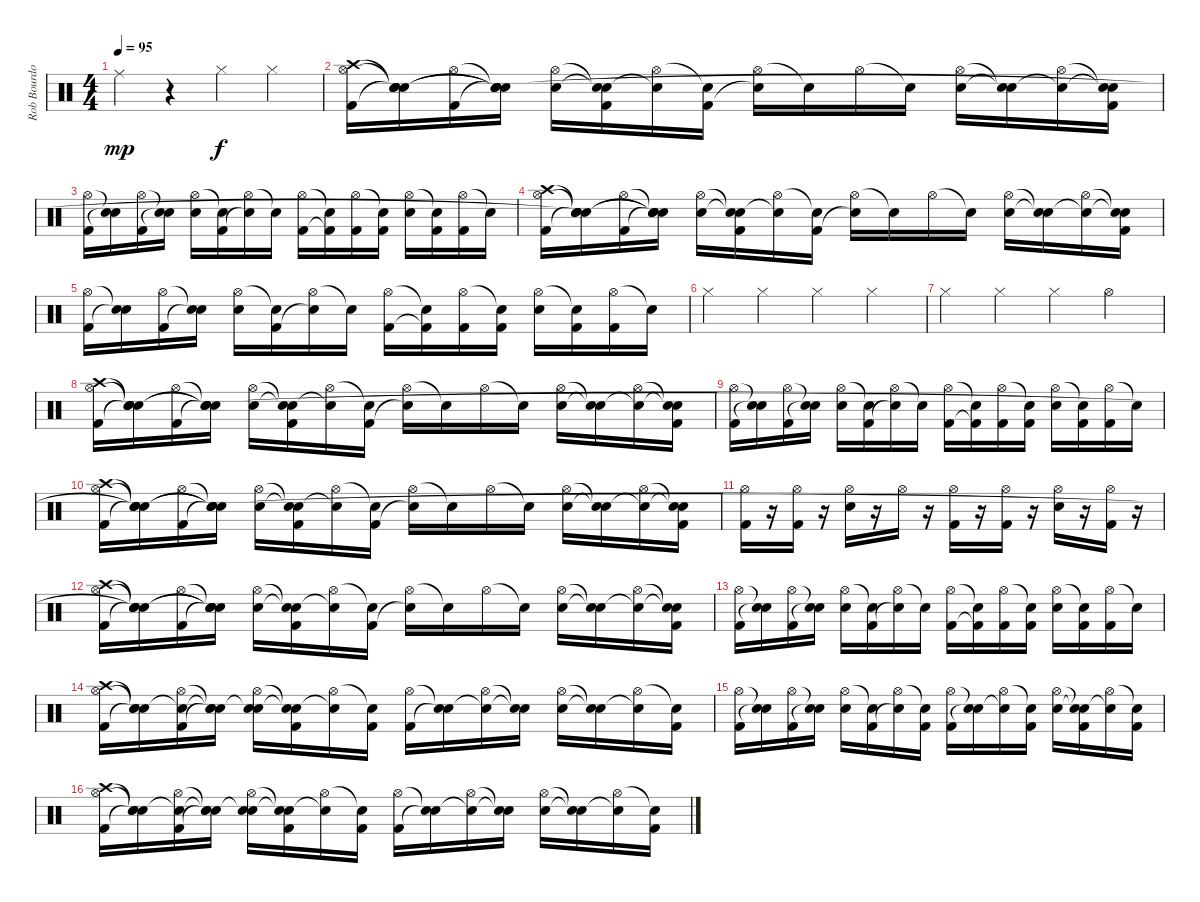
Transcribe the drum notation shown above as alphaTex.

\track ("Rob Bourdon" "Rob Bourdo") {instrument percussion}
\staff {score}
\articulation defaults
\ts (4 4)
\tempo 95
\clef neutral
\ks c "Ride (middle)".4{dy mp}
r.4 "Hi-Hat (closed)".4{dy f} "Hi-Hat (closed)".4 |
("Crash high (hit)" "Hi-Hat (open)" "Kick (hit) 2").16 ("Snare (hit)"{t} "Snare (hit)"{t} "Snare (hit)"{t} "Snare (hit)").16 ("Hi-Hat (open)" "Kick (hit) 2").16 ("Snare (hit)"{t} "Snare (hit)"{t} "Snare (hit)"{t} "Snare (hit)"{t}).16 ("Hi-Hat (open)" "Snare (hit) 2").16 ("Snare (hit)"{t} "Snare (hit)"{t} "Kick (hit) 2").16 ("Hi-Hat (open)" "Snare (hit)"{t}).16 ("Snare (hit)"{t} "Kick (hit) 2").16 ("Hi-Hat (open)" "Snare (hit)"{t}).16 "Snare (hit)"{t}.16 "Hi-Hat (open)".16 "Snare (hit)"{t}.16 ("Hi-Hat (open)" "Snare (hit) 2").16 ("Snare (hit)"{t} "Snare (hit)"{t}).16 ("Hi-Hat (open)" "Snare (hit)"{t}).16 ("Snare (hit)"{t} "Snare (hit)"{t} "Kick (hit) 2").16 |
("Hi-Hat (open)" "Kick (hit) 2").16 ("Snare (hit)"{t} "Snare (hit)"{t}).16 ("Hi-Hat (open)" "Kick (hit) 2").16 ("Snare (hit)"{t} "Snare (hit)"{t}).16 ("Hi-Hat (open)" "Snare (hit) 2").16 ("Snare (hit)"{t} "Kick (hit) 2").16 ("Hi-Hat (open)" "Snare (hit)"{t}).16 "Snare (hit)"{t}.16 ("Hi-Hat (open)" "Kick (hit) 2").16 ("Snare (hit)"{t} "Kick (hit) 2"{t}).16 ("Hi-Hat (open)" "Kick (hit) 2").16 ("Snare (hit)"{t} "Kick (hit) 2").16 ("Hi-Hat (open)" "Snare (hit) 2").16 ("Snare (hit)"{t} "Kick (hit) 2").16 ("Hi-Hat (open)" "Kick (hit) 2").16 "Snare (hit)"{t}.16 |
("Crash high (hit)" "Hi-Hat (open)" "Kick (hit) 2").16 ("Snare (hit)"{t} "Snare (hit)"{t} "Snare (hit)"{t} "Snare (hit)"{t}).16 ("Hi-Hat (open)" "Kick (hit) 2").16 ("Snare (hit)"{t} "Snare (hit)"{t} "Snare (hit)"{t} "Snare (hit)"{t}).16 ("Hi-Hat (open)" "Snare (hit) 2").16 ("Snare (hit)"{t} "Snare (hit)"{t} "Kick (hit) 2").16 ("Hi-Hat (open)" "Snare (hit)"{t}).16 ("Snare (hit)"{t} "Kick (hit) 2").16 ("Hi-Hat (open)" "Snare (hit)"{t}).16 "Snare (hit)"{t}.16 "Hi-Hat (open)".16 "Snare (hit)"{t}.16 ("Hi-Hat (open)" "Snare (hit) 2").16 ("Snare (hit)"{t} "Snare (hit)"{t}).16 ("Hi-Hat (open)" "Snare (hit)"{t}).16 ("Snare (hit)"{t} "Snare (hit)"{t} "Kick (hit) 2").16 |
("Hi-Hat (open)" "Kick (hit) 2").16 ("Snare (hit)"{t} "Snare (hit)"{t}).16 ("Hi-Hat (open)" "Kick (hit) 2").16 ("Snare (hit)"{t} "Snare (hit)"{t}).16 ("Hi-Hat (open)" "Snare (hit) 2").16 ("Snare (hit)"{t} "Kick (hit) 2").16 ("Hi-Hat (open)" "Snare (hit)"{t}).16 "Snare (hit)"{t}.16 ("Hi-Hat (open)" "Kick (hit) 2").16 ("Snare (hit)"{t} "Kick (hit) 2"{t}).16 ("Hi-Hat (open)" "Kick (hit) 2").16 ("Snare (hit)"{t} "Kick (hit) 2").16 ("Hi-Hat (open)" "Snare (hit) 2").16 ("Snare (hit)"{t} "Kick (hit) 2").16 ("Hi-Hat (open)" "Kick (hit) 2").16 "Snare (hit)"{t}.16 |
"Hi-Hat (closed)".4 "Hi-Hat (closed)".4 "Hi-Hat (closed)".4 "Hi-Hat (closed)".4 |
"Hi-Hat (closed)".4 "Hi-Hat (closed)".4 "Hi-Hat (closed)".4 "Hi-Hat (open)".4 |
("Crash high (hit)" "Hi-Hat (open)" "Kick (hit) 2").16 ("Snare (hit)"{t} "Snare (hit)"{t} "Snare (hit)"{t} "Snare (hit)").16 ("Hi-Hat (open)" "Kick (hit) 2").16 ("Snare (hit)"{t} "Snare (hit)"{t} "Snare (hit)"{t} "Snare (hit)"{t}).16 ("Hi-Hat (open)" "Snare (hit) 2").16 ("Snare (hit)"{t} "Snare (hit)"{t} "Kick (hit) 2").16 ("Hi-Hat (open)" "Snare (hit)"{t}).16 ("Snare (hit)"{t} "Kick (hit) 2").16 ("Hi-Hat (open)" "Snare (hit)"{t}).16 "Snare (hit)"{t}.16 "Hi-Hat (open)".16 "Snare (hit)"{t}.16 ("Hi-Hat (open)" "Snare (hit) 2").16 ("Snare (hit)"{t} "Snare (hit)"{t}).16 ("Hi-Hat (open)" "Snare (hit)"{t}).16 ("Snare (hit)"{t} "Snare (hit)"{t} "Kick (hit) 2").16 |
("Hi-Hat (open)" "Kick (hit) 2").16 ("Snare (hit)"{t} "Snare (hit)"{t}).16 ("Hi-Hat (open)" "Kick (hit) 2").16 ("Snare (hit)"{t} "Snare (hit)"{t}).16 ("Hi-Hat (open)" "Snare (hit) 2").16 ("Snare (hit)"{t} "Kick (hit) 2").16 ("Hi-Hat (open)" "Snare (hit)"{t}).16 "Snare (hit)"{t}.16 ("Hi-Hat (open)" "Kick (hit) 2").16 ("Snare (hit)"{t} "Kick (hit) 2"{t}).16 ("Hi-Hat (open)" "Kick (hit) 2").16 ("Snare (hit)"{t} "Kick (hit) 2").16 ("Hi-Hat (open)" "Snare (hit) 2").16 ("Snare (hit)"{t} "Kick (hit) 2").16 ("Hi-Hat (open)" "Kick (hit) 2").16 "Snare (hit)"{t}.16 |
("Crash high (hit)" "Hi-Hat (open)" "Kick (hit) 2").16 ("Snare (hit)"{t} "Snare (hit)"{t} "Snare (hit)"{t} "Snare (hit)"{t}).16 ("Hi-Hat (open)" "Kick (hit) 2").16 ("Snare (hit)"{t} "Snare (hit)"{t} "Snare (hit)"{t} "Snare (hit)"{t}).16 ("Hi-Hat (open)" "Snare (hit) 2").16 ("Snare (hit)"{t} "Snare (hit)"{t} "Kick (hit) 2").16 ("Hi-Hat (open)" "Snare (hit)"{t}).16 ("Snare (hit)"{t} "Kick (hit) 2").16 ("Hi-Hat (open)" "Snare (hit)"{t}).16 "Snare (hit)"{t}.16 "Hi-Hat (open)".16 "Snare (hit)"{t}.16 ("Hi-Hat (open)" "Snare (hit) 2").16 ("Snare (hit)"{t} "Snare (hit)"{t}).16 ("Hi-Hat (open)" "Snare (hit)"{t}).16 ("Snare (hit)"{t} "Snare (hit)"{t} "Kick (hit) 2").16 |
("Hi-Hat (open)" "Kick (hit) 2").16 r.16 ("Hi-Hat (open)" "Kick (hit) 2").16 r.16 ("Hi-Hat (open)" "Snare (hit) 2").16 r.16 "Hi-Hat (open)".16 r.16 ("Hi-Hat (open)" "Kick (hit) 2").16 r.16 ("Hi-Hat (open)" "Kick (hit) 2").16 r.16 ("Hi-Hat (open)" "Snare (hit) 2").16 r.16 ("Hi-Hat (open)" "Kick (hit) 2").16 r.16 |
("Crash high (hit)" "Hi-Hat (open)" "Kick (hit) 2").16 ("Snare (hit)"{t} "Snare (hit)"{t} "Snare (hit)"{t} "Snare (hit)"{t}).16 ("Hi-Hat (open)" "Kick (hit) 2").16 ("Snare (hit)"{t} "Snare (hit)"{t} "Snare (hit)"{t} "Snare (hit)"{t}).16 ("Hi-Hat (open)" "Snare (hit) 2").16 ("Snare (hit)"{t} "Snare (hit)"{t} "Kick (hit) 2").16 ("Hi-Hat (open)" "Snare (hit)"{t}).16 ("Snare (hit)"{t} "Kick (hit) 2").16 ("Hi-Hat (open)" "Snare (hit)"{t}).16 "Snare (hit)"{t}.16 "Hi-Hat (open)".16 "Snare (hit)"{t}.16 ("Hi-Hat (open)" "Snare (hit) 2").16 ("Snare (hit)"{t} "Snare (hit)"{t}).16 ("Hi-Hat (open)" "Snare (hit)"{t}).16 ("Snare (hit)"{t} "Snare (hit)"{t} "Kick (hit) 2").16 |
("Hi-Hat (open)" "Kick (hit) 2").16 ("Snare (hit)"{t} "Snare (hit)"{t}).16 ("Hi-Hat (open)" "Kick (hit) 2").16 ("Snare (hit)"{t} "Snare (hit)"{t}).16 ("Hi-Hat (open)" "Snare (hit) 2").16 ("Snare (hit)"{t} "Kick (hit) 2").16 ("Hi-Hat (open)" "Snare (hit)"{t}).16 "Snare (hit)"{t}.16 ("Hi-Hat (open)" "Kick (hit) 2").16 ("Snare (hit)"{t} "Kick (hit) 2"{t}).16 ("Hi-Hat (open)" "Kick (hit) 2").16 ("Snare (hit)"{t} "Kick (hit) 2").16 ("Hi-Hat (open)" "Snare (hit) 2").16 ("Snare (hit)"{t} "Kick (hit) 2").16 ("Hi-Hat (open)" "Kick (hit) 2").16 "Snare (hit)"{t}.16 |
("Crash high (hit)" "Hi-Hat (open)" "Kick (hit) 2").16 ("Snare (hit)"{t} "Snare (hit)"{t} "Snare (hit)"{t}).16 ("Snare (hit)"{t} "Hi-Hat (open)" "Kick (hit) 2").16 ("Snare (hit)"{t} "Snare (hit)"{t} "Snare (hit)"{t}).16 ("Snare (hit)"{t} "Hi-Hat (open)" "Snare (hit) 2").16 ("Snare (hit)"{t} "Snare (hit)"{t} "Kick (hit) 2").16 ("Hi-Hat (open)" "Snare (hit)"{t}).16 ("Snare (hit)"{t} "Kick (hit) 2").16 ("Hi-Hat (open)" "Kick (hit) 2").16 ("Snare (hit)"{t} "Snare (hit)"{t}).16 ("Hi-Hat (open)" "Snare (hit)"{t}).16 ("Snare (hit)"{t} "Snare (hit)"{t}).16 ("Hi-Hat (open)" "Snare (hit) 2").16 ("Snare (hit)"{t} "Snare (hit)"{t}).16 ("Hi-Hat (open)" "Snare (hit)"{t}).16 ("Snare (hit)"{t} "Kick (hit) 2").16 |
("Hi-Hat (open)" "Kick (hit) 2").16 ("Snare (hit)"{t} "Snare (hit)"{t}).16 ("Hi-Hat (open)" "Kick (hit) 2").16 ("Snare (hit)"{t} "Snare (hit)"{t}).16 ("Hi-Hat (open)" "Snare (hit) 2").16 ("Snare (hit)"{t} "Kick (hit) 2").16 ("Hi-Hat (open)" "Snare (hit)"{t}).16 ("Snare (hit)"{t} "Kick (hit) 2").16 ("Hi-Hat (open)" "Kick (hit) 2").16 ("Snare (hit)"{t} "Snare (hit)"{t}).16 ("Hi-Hat (open)" "Snare (hit)"{t}).16 ("Snare (hit)"{t} "Kick (hit) 2").16 ("Hi-Hat (open)" "Snare (hit) 2").16 ("Snare (hit)"{t} "Snare (hit)"{t} "Kick (hit) 2").16 ("Hi-Hat (open)" "Snare (hit)"{t}).16 ("Snare (hit)"{t} "Kick (hit) 2").16 |
("Crash high (hit)" "Hi-Hat (open)" "Kick (hit) 2").16 ("Snare (hit)"{t} "Snare (hit)"{t} "Snare (hit)"{t}).16 ("Snare (hit)"{t} "Hi-Hat (open)" "Kick (hit) 2").16 ("Snare (hit)"{t} "Snare (hit)"{t} "Snare (hit)"{t}).16 ("Snare (hit)"{t} "Hi-Hat (open)" "Snare (hit) 2").16 ("Snare (hit)"{t} "Snare (hit)"{t} "Kick (hit) 2").16 ("Hi-Hat (open)" "Snare (hit)"{t}).16 ("Snare (hit)"{t} "Kick (hit) 2").16 ("Hi-Hat (open)" "Kick (hit) 2").16 ("Snare (hit)"{t} "Snare (hit)"{t}).16 ("Hi-Hat (open)" "Snare (hit)"{t}).16 ("Snare (hit)"{t} "Snare (hit)"{t}).16 ("Hi-Hat (open)" "Snare (hit) 2").16 ("Snare (hit)"{t} "Snare (hit)"{t}).16 ("Hi-Hat (open)" "Snare (hit)"{t}).16 ("Snare (hit)"{t} "Kick (hit) 2").16
